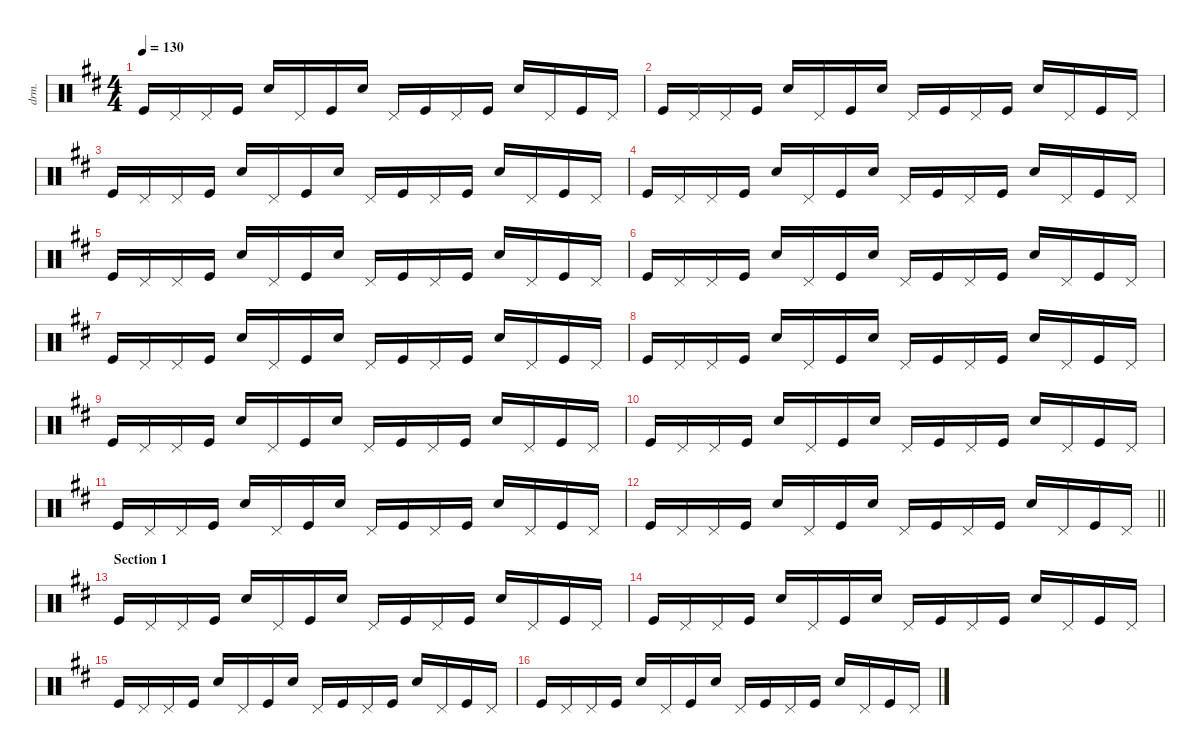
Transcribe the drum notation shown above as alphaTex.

\defaultSystemsLayout 4
\hideDynamics
\bracketExtendMode nobrackets
\otherSystemsTrackNameOrientation horizontal
\track ("Percussion" "drm.") {instrument percussion}
\staff {score}
\articulation defaults
\ts (4 4)
\tempo 130
\clef neutral
\ks d "Kick (hit)"{acc forcenatural}.16{dy f} "Pedal Hi-Hat (hit)"{acc forcenatural}.16 "Pedal Hi-Hat (hit)"{acc forcenatural}.16 "Kick (hit)"{acc forcenatural}.16 "Snare (hit) 2"{acc forcenatural}.16 "Pedal Hi-Hat (hit)"{acc forcenatural}.16 "Kick (hit)"{acc forcenatural}.16 "Snare (hit) 2"{acc forcenatural}.16 "Pedal Hi-Hat (hit)"{acc forcenatural}.16 "Kick (hit)"{acc forcenatural}.16 "Pedal Hi-Hat (hit)"{acc forcenatural}.16 "Kick (hit)"{acc forcenatural}.16 "Snare (hit) 2"{acc forcenatural}.16 "Pedal Hi-Hat (hit)"{acc forcenatural}.16 "Kick (hit)"{acc forcenatural}.16 "Pedal Hi-Hat (hit)"{acc forcenatural}.16
|
"Kick (hit)"{acc forcenatural}.16 "Pedal Hi-Hat (hit)"{acc forcenatural}.16 "Pedal Hi-Hat (hit)"{acc forcenatural}.16 "Kick (hit)"{acc forcenatural}.16 "Snare (hit) 2"{acc forcenatural}.16 "Pedal Hi-Hat (hit)"{acc forcenatural}.16 "Kick (hit)"{acc forcenatural}.16 "Snare (hit) 2"{acc forcenatural}.16 "Pedal Hi-Hat (hit)"{acc forcenatural}.16 "Kick (hit)"{acc forcenatural}.16 "Pedal Hi-Hat (hit)"{acc forcenatural}.16 "Kick (hit)"{acc forcenatural}.16 "Snare (hit) 2"{acc forcenatural}.16 "Pedal Hi-Hat (hit)"{acc forcenatural}.16 "Kick (hit)"{acc forcenatural}.16 "Pedal Hi-Hat (hit)"{acc forcenatural}.16 |
"Kick (hit)"{acc forcenatural}.16 "Pedal Hi-Hat (hit)"{acc forcenatural}.16 "Pedal Hi-Hat (hit)"{acc forcenatural}.16 "Kick (hit)"{acc forcenatural}.16 "Snare (hit) 2"{acc forcenatural}.16 "Pedal Hi-Hat (hit)"{acc forcenatural}.16 "Kick (hit)"{acc forcenatural}.16 "Snare (hit) 2"{acc forcenatural}.16 "Pedal Hi-Hat (hit)"{acc forcenatural}.16 "Kick (hit)"{acc forcenatural}.16 "Pedal Hi-Hat (hit)"{acc forcenatural}.16 "Kick (hit)"{acc forcenatural}.16 "Snare (hit) 2"{acc forcenatural}.16 "Pedal Hi-Hat (hit)"{acc forcenatural}.16 "Kick (hit)"{acc forcenatural}.16 "Pedal Hi-Hat (hit)"{acc forcenatural}.16 |
"Kick (hit)"{acc forcenatural}.16 "Pedal Hi-Hat (hit)"{acc forcenatural}.16 "Pedal Hi-Hat (hit)"{acc forcenatural}.16 "Kick (hit)"{acc forcenatural}.16 "Snare (hit) 2"{acc forcenatural}.16 "Pedal Hi-Hat (hit)"{acc forcenatural}.16 "Kick (hit)"{acc forcenatural}.16 "Snare (hit) 2"{acc forcenatural}.16 "Pedal Hi-Hat (hit)"{acc forcenatural}.16 "Kick (hit)"{acc forcenatural}.16 "Pedal Hi-Hat (hit)"{acc forcenatural}.16 "Kick (hit)"{acc forcenatural}.16 "Snare (hit) 2"{acc forcenatural}.16 "Pedal Hi-Hat (hit)"{acc forcenatural}.16 "Kick (hit)"{acc forcenatural}.16 "Pedal Hi-Hat (hit)"{acc forcenatural}.16 |
"Kick (hit)"{acc forcenatural}.16 "Pedal Hi-Hat (hit)"{acc forcenatural}.16 "Pedal Hi-Hat (hit)"{acc forcenatural}.16 "Kick (hit)"{acc forcenatural}.16 "Snare (hit) 2"{acc forcenatural}.16 "Pedal Hi-Hat (hit)"{acc forcenatural}.16 "Kick (hit)"{acc forcenatural}.16 "Snare (hit) 2"{acc forcenatural}.16 "Pedal Hi-Hat (hit)"{acc forcenatural}.16 "Kick (hit)"{acc forcenatural}.16 "Pedal Hi-Hat (hit)"{acc forcenatural}.16 "Kick (hit)"{acc forcenatural}.16 "Snare (hit) 2"{acc forcenatural}.16 "Pedal Hi-Hat (hit)"{acc forcenatural}.16 "Kick (hit)"{acc forcenatural}.16 "Pedal Hi-Hat (hit)"{acc forcenatural}.16 |
"Kick (hit)"{acc forcenatural}.16 "Pedal Hi-Hat (hit)"{acc forcenatural}.16 "Pedal Hi-Hat (hit)"{acc forcenatural}.16 "Kick (hit)"{acc forcenatural}.16 "Snare (hit) 2"{acc forcenatural}.16 "Pedal Hi-Hat (hit)"{acc forcenatural}.16 "Kick (hit)"{acc forcenatural}.16 "Snare (hit) 2"{acc forcenatural}.16 "Pedal Hi-Hat (hit)"{acc forcenatural}.16 "Kick (hit)"{acc forcenatural}.16 "Pedal Hi-Hat (hit)"{acc forcenatural}.16 "Kick (hit)"{acc forcenatural}.16 "Snare (hit) 2"{acc forcenatural}.16 "Pedal Hi-Hat (hit)"{acc forcenatural}.16 "Kick (hit)"{acc forcenatural}.16 "Pedal Hi-Hat (hit)"{acc forcenatural}.16 |
"Kick (hit)"{acc forcenatural}.16 "Pedal Hi-Hat (hit)"{acc forcenatural}.16 "Pedal Hi-Hat (hit)"{acc forcenatural}.16 "Kick (hit)"{acc forcenatural}.16 "Snare (hit) 2"{acc forcenatural}.16 "Pedal Hi-Hat (hit)"{acc forcenatural}.16 "Kick (hit)"{acc forcenatural}.16 "Snare (hit) 2"{acc forcenatural}.16 "Pedal Hi-Hat (hit)"{acc forcenatural}.16 "Kick (hit)"{acc forcenatural}.16 "Pedal Hi-Hat (hit)"{acc forcenatural}.16 "Kick (hit)"{acc forcenatural}.16 "Snare (hit) 2"{acc forcenatural}.16 "Pedal Hi-Hat (hit)"{acc forcenatural}.16 "Kick (hit)"{acc forcenatural}.16 "Pedal Hi-Hat (hit)"{acc forcenatural}.16 |
"Kick (hit)"{acc forcenatural}.16 "Pedal Hi-Hat (hit)"{acc forcenatural}.16 "Pedal Hi-Hat (hit)"{acc forcenatural}.16 "Kick (hit)"{acc forcenatural}.16 "Snare (hit) 2"{acc forcenatural}.16 "Pedal Hi-Hat (hit)"{acc forcenatural}.16 "Kick (hit)"{acc forcenatural}.16 "Snare (hit) 2"{acc forcenatural}.16 "Pedal Hi-Hat (hit)"{acc forcenatural}.16 "Kick (hit)"{acc forcenatural}.16 "Pedal Hi-Hat (hit)"{acc forcenatural}.16 "Kick (hit)"{acc forcenatural}.16 "Snare (hit) 2"{acc forcenatural}.16 "Pedal Hi-Hat (hit)"{acc forcenatural}.16 "Kick (hit)"{acc forcenatural}.16 "Pedal Hi-Hat (hit)"{acc forcenatural}.16 |
"Kick (hit)"{acc forcenatural}.16 "Pedal Hi-Hat (hit)"{acc forcenatural}.16 "Pedal Hi-Hat (hit)"{acc forcenatural}.16 "Kick (hit)"{acc forcenatural}.16 "Snare (hit) 2"{acc forcenatural}.16 "Pedal Hi-Hat (hit)"{acc forcenatural}.16 "Kick (hit)"{acc forcenatural}.16 "Snare (hit) 2"{acc forcenatural}.16 "Pedal Hi-Hat (hit)"{acc forcenatural}.16 "Kick (hit)"{acc forcenatural}.16 "Pedal Hi-Hat (hit)"{acc forcenatural}.16 "Kick (hit)"{acc forcenatural}.16 "Snare (hit) 2"{acc forcenatural}.16 "Pedal Hi-Hat (hit)"{acc forcenatural}.16 "Kick (hit)"{acc forcenatural}.16 "Pedal Hi-Hat (hit)"{acc forcenatural}.16 |
"Kick (hit)"{acc forcenatural}.16 "Pedal Hi-Hat (hit)"{acc forcenatural}.16 "Pedal Hi-Hat (hit)"{acc forcenatural}.16 "Kick (hit)"{acc forcenatural}.16 "Snare (hit) 2"{acc forcenatural}.16 "Pedal Hi-Hat (hit)"{acc forcenatural}.16 "Kick (hit)"{acc forcenatural}.16 "Snare (hit) 2"{acc forcenatural}.16 "Pedal Hi-Hat (hit)"{acc forcenatural}.16 "Kick (hit)"{acc forcenatural}.16 "Pedal Hi-Hat (hit)"{acc forcenatural}.16 "Kick (hit)"{acc forcenatural}.16 "Snare (hit) 2"{acc forcenatural}.16 "Pedal Hi-Hat (hit)"{acc forcenatural}.16 "Kick (hit)"{acc forcenatural}.16 "Pedal Hi-Hat (hit)"{acc forcenatural}.16 |
"Kick (hit)"{acc forcenatural}.16 "Pedal Hi-Hat (hit)"{acc forcenatural}.16 "Pedal Hi-Hat (hit)"{acc forcenatural}.16 "Kick (hit)"{acc forcenatural}.16 "Snare (hit) 2"{acc forcenatural}.16 "Pedal Hi-Hat (hit)"{acc forcenatural}.16 "Kick (hit)"{acc forcenatural}.16 "Snare (hit) 2"{acc forcenatural}.16 "Pedal Hi-Hat (hit)"{acc forcenatural}.16 "Kick (hit)"{acc forcenatural}.16 "Pedal Hi-Hat (hit)"{acc forcenatural}.16 "Kick (hit)"{acc forcenatural}.16 "Snare (hit) 2"{acc forcenatural}.16 "Pedal Hi-Hat (hit)"{acc forcenatural}.16 "Kick (hit)"{acc forcenatural}.16 "Pedal Hi-Hat (hit)"{acc forcenatural}.16 |
\barLineRight lightlight "Kick (hit)"{acc forcenatural}.16 "Pedal Hi-Hat (hit)"{acc forcenatural}.16 "Pedal Hi-Hat (hit)"{acc forcenatural}.16 "Kick (hit)"{acc forcenatural}.16 "Snare (hit) 2"{acc forcenatural}.16 "Pedal Hi-Hat (hit)"{acc forcenatural}.16 "Kick (hit)"{acc forcenatural}.16 "Snare (hit) 2"{acc forcenatural}.16 "Pedal Hi-Hat (hit)"{acc forcenatural}.16 "Kick (hit)"{acc forcenatural}.16 "Pedal Hi-Hat (hit)"{acc forcenatural}.16 "Kick (hit)"{acc forcenatural}.16 "Snare (hit) 2"{acc forcenatural}.16 "Pedal Hi-Hat (hit)"{acc forcenatural}.16 "Kick (hit)"{acc forcenatural}.16 "Pedal Hi-Hat (hit)"{acc forcenatural}.16
|
\section ("" "Section 1")
"Kick (hit)"{acc forcenatural}.16 "Pedal Hi-Hat (hit)"{acc forcenatural}.16 "Pedal Hi-Hat (hit)"{acc forcenatural}.16 "Kick (hit)"{acc forcenatural}.16 "Snare (hit) 2"{acc forcenatural}.16 "Pedal Hi-Hat (hit)"{acc forcenatural}.16 "Kick (hit)"{acc forcenatural}.16 "Snare (hit) 2"{acc forcenatural}.16 "Pedal Hi-Hat (hit)"{acc forcenatural}.16 "Kick (hit)"{acc forcenatural}.16 "Pedal Hi-Hat (hit)"{acc forcenatural}.16 "Kick (hit)"{acc forcenatural}.16 "Snare (hit) 2"{acc forcenatural}.16 "Pedal Hi-Hat (hit)"{acc forcenatural}.16 "Kick (hit)"{acc forcenatural}.16 "Pedal Hi-Hat (hit)"{acc forcenatural}.16 |
"Kick (hit)"{acc forcenatural}.16 "Pedal Hi-Hat (hit)"{acc forcenatural}.16 "Pedal Hi-Hat (hit)"{acc forcenatural}.16 "Kick (hit)"{acc forcenatural}.16 "Snare (hit) 2"{acc forcenatural}.16 "Pedal Hi-Hat (hit)"{acc forcenatural}.16 "Kick (hit)"{acc forcenatural}.16 "Snare (hit) 2"{acc forcenatural}.16 "Pedal Hi-Hat (hit)"{acc forcenatural}.16 "Kick (hit)"{acc forcenatural}.16 "Pedal Hi-Hat (hit)"{acc forcenatural}.16 "Kick (hit)"{acc forcenatural}.16 "Snare (hit) 2"{acc forcenatural}.16 "Pedal Hi-Hat (hit)"{acc forcenatural}.16 "Kick (hit)"{acc forcenatural}.16 "Pedal Hi-Hat (hit)"{acc forcenatural}.16 |
"Kick (hit)"{acc forcenatural}.16 "Pedal Hi-Hat (hit)"{acc forcenatural}.16 "Pedal Hi-Hat (hit)"{acc forcenatural}.16 "Kick (hit)"{acc forcenatural}.16 "Snare (hit) 2"{acc forcenatural}.16 "Pedal Hi-Hat (hit)"{acc forcenatural}.16 "Kick (hit)"{acc forcenatural}.16 "Snare (hit) 2"{acc forcenatural}.16 "Pedal Hi-Hat (hit)"{acc forcenatural}.16 "Kick (hit)"{acc forcenatural}.16 "Pedal Hi-Hat (hit)"{acc forcenatural}.16 "Kick (hit)"{acc forcenatural}.16 "Snare (hit) 2"{acc forcenatural}.16 "Pedal Hi-Hat (hit)"{acc forcenatural}.16 "Kick (hit)"{acc forcenatural}.16 "Pedal Hi-Hat (hit)"{acc forcenatural}.16 |
"Kick (hit)"{acc forcenatural}.16 "Pedal Hi-Hat (hit)"{acc forcenatural}.16 "Pedal Hi-Hat (hit)"{acc forcenatural}.16 "Kick (hit)"{acc forcenatural}.16 "Snare (hit) 2"{acc forcenatural}.16 "Pedal Hi-Hat (hit)"{acc forcenatural}.16 "Kick (hit)"{acc forcenatural}.16 "Snare (hit) 2"{acc forcenatural}.16 "Pedal Hi-Hat (hit)"{acc forcenatural}.16 "Kick (hit)"{acc forcenatural}.16 "Pedal Hi-Hat (hit)"{acc forcenatural}.16 "Kick (hit)"{acc forcenatural}.16 "Snare (hit) 2"{acc forcenatural}.16 "Pedal Hi-Hat (hit)"{acc forcenatural}.16 "Kick (hit)"{acc forcenatural}.16 "Pedal Hi-Hat (hit)"{acc forcenatural}.16
